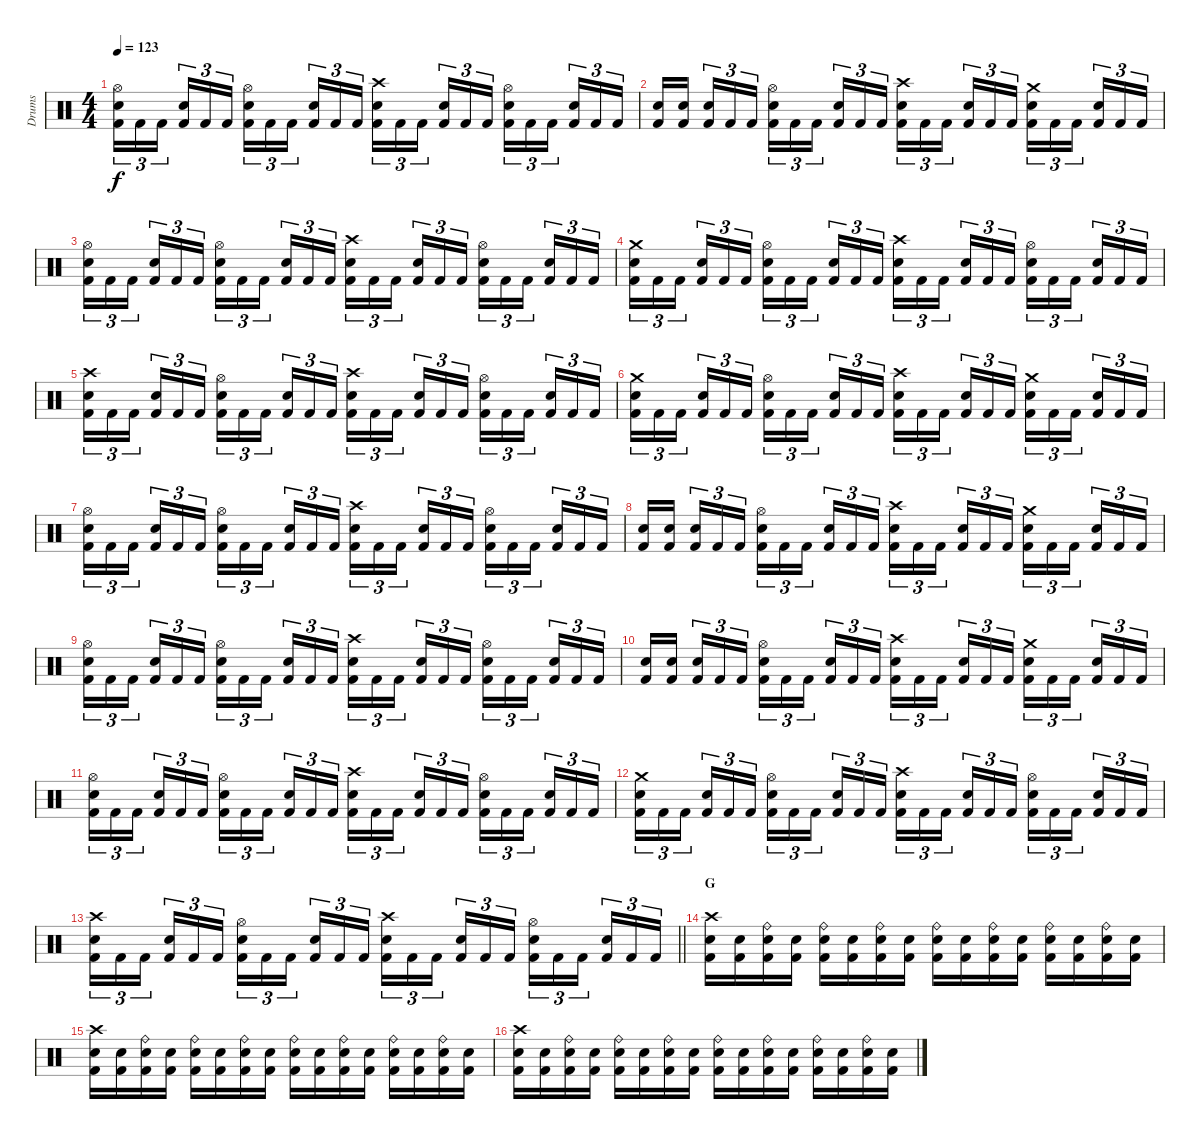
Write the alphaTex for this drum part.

\track ("Drums" "Drums") {instrument percussion}
\staff {score}
\articulation defaults
\ts (4 4)
\tempo 123
\clef neutral
\ks c
("Hi-Hat (open)" "Snare (hit) 2" "Kick (hit) 2").16{tu (3 2) dy f} "Kick (hit) 2".16{tu (3 2)} "Kick (hit) 2".16{tu (3 2) beam splitsecondary} ("Snare (hit) 2" "Kick (hit) 2").16{tu (3 2)} "Kick (hit) 2".16{tu (3 2)} "Kick (hit) 2".16{tu (3 2)} ("Hi-Hat (open)" "Snare (hit) 2" "Kick (hit) 2").16{tu (3 2)} "Kick (hit) 2".16{tu (3 2)} "Kick (hit) 2".16{tu (3 2) beam splitsecondary} ("Snare (hit) 2" "Kick (hit) 2").16{tu (3 2)} "Kick (hit) 2".16{tu (3 2)} "Kick (hit) 2".16{tu (3 2)} ("Crash high (hit)" "Snare (hit) 2" "Kick (hit) 2").16{tu (3 2)} "Kick (hit) 2".16{tu (3 2)} "Kick (hit) 2".16{tu (3 2) beam splitsecondary} ("Snare (hit) 2" "Kick (hit) 2").16{tu (3 2)} "Kick (hit) 2".16{tu (3 2)} "Kick (hit) 2".16{tu (3 2)} ("Hi-Hat (open)" "Snare (hit) 2" "Kick (hit) 2").16{tu (3 2)} "Kick (hit) 2".16{tu (3 2)} "Kick (hit) 2".16{tu (3 2) beam splitsecondary} ("Snare (hit) 2" "Kick (hit) 2").16{tu (3 2)} "Kick (hit) 2".16{tu (3 2)} "Kick (hit) 2".16{tu (3 2)} |
("Snare (hit) 2" "Kick (hit) 2").16 ("Snare (hit) 2" "Kick (hit) 2").16{beam splitsecondary} ("Snare (hit) 2" "Kick (hit) 2").16{tu (3 2)} "Kick (hit) 2".16{tu (3 2)} "Kick (hit) 2".16{tu (3 2)} ("Hi-Hat (open)" "Snare (hit) 2" "Kick (hit) 2").16{tu (3 2)} "Kick (hit) 2".16{tu (3 2)} "Kick (hit) 2".16{tu (3 2) beam splitsecondary} ("Snare (hit) 2" "Kick (hit) 2").16{tu (3 2)} "Kick (hit) 2".16{tu (3 2)} "Kick (hit) 2".16{tu (3 2)} ("Crash high (hit)" "Snare (hit) 2" "Kick (hit) 2").16{tu (3 2)} "Kick (hit) 2".16{tu (3 2)} "Kick (hit) 2".16{tu (3 2) beam splitsecondary} ("Snare (hit) 2" "Kick (hit) 2").16{tu (3 2)} "Kick (hit) 2".16{tu (3 2)} "Kick (hit) 2".16{tu (3 2)} ("Crash medium (hit)" "Snare (hit) 2" "Kick (hit) 2").16{tu (3 2)} "Kick (hit) 2".16{tu (3 2)} "Kick (hit) 2".16{tu (3 2) beam splitsecondary} ("Snare (hit) 2" "Kick (hit) 2").16{tu (3 2)} "Kick (hit) 2".16{tu (3 2)} "Kick (hit) 2".16{tu (3 2)} |
("Hi-Hat (open)" "Snare (hit) 2" "Kick (hit) 2").16{tu (3 2)} "Kick (hit) 2".16{tu (3 2)} "Kick (hit) 2".16{tu (3 2) beam splitsecondary} ("Snare (hit) 2" "Kick (hit) 2").16{tu (3 2)} "Kick (hit) 2".16{tu (3 2)} "Kick (hit) 2".16{tu (3 2)} ("Hi-Hat (open)" "Snare (hit) 2" "Kick (hit) 2").16{tu (3 2)} "Kick (hit) 2".16{tu (3 2)} "Kick (hit) 2".16{tu (3 2) beam splitsecondary} ("Snare (hit) 2" "Kick (hit) 2").16{tu (3 2)} "Kick (hit) 2".16{tu (3 2)} "Kick (hit) 2".16{tu (3 2)} ("Crash high (hit)" "Snare (hit) 2" "Kick (hit) 2").16{tu (3 2)} "Kick (hit) 2".16{tu (3 2)} "Kick (hit) 2".16{tu (3 2) beam splitsecondary} ("Snare (hit) 2" "Kick (hit) 2").16{tu (3 2)} "Kick (hit) 2".16{tu (3 2)} "Kick (hit) 2".16{tu (3 2)} ("Hi-Hat (open)" "Snare (hit) 2" "Kick (hit) 2").16{tu (3 2)} "Kick (hit) 2".16{tu (3 2)} "Kick (hit) 2".16{tu (3 2) beam splitsecondary} ("Snare (hit) 2" "Kick (hit) 2").16{tu (3 2)} "Kick (hit) 2".16{tu (3 2)} "Kick (hit) 2".16{tu (3 2)} |
("Crash medium (hit)" "Snare (hit) 2" "Kick (hit) 2").16{tu (3 2)} "Kick (hit) 2".16{tu (3 2)} "Kick (hit) 2".16{tu (3 2) beam splitsecondary} ("Snare (hit) 2" "Kick (hit) 2").16{tu (3 2)} "Kick (hit) 2".16{tu (3 2)} "Kick (hit) 2".16{tu (3 2)} ("Hi-Hat (open)" "Snare (hit) 2" "Kick (hit) 2").16{tu (3 2)} "Kick (hit) 2".16{tu (3 2)} "Kick (hit) 2".16{tu (3 2) beam splitsecondary} ("Snare (hit) 2" "Kick (hit) 2").16{tu (3 2)} "Kick (hit) 2".16{tu (3 2)} "Kick (hit) 2".16{tu (3 2)} ("Crash high (hit)" "Snare (hit) 2" "Kick (hit) 2").16{tu (3 2)} "Kick (hit) 2".16{tu (3 2)} "Kick (hit) 2".16{tu (3 2) beam splitsecondary} ("Snare (hit) 2" "Kick (hit) 2").16{tu (3 2)} "Kick (hit) 2".16{tu (3 2)} "Kick (hit) 2".16{tu (3 2)} ("Hi-Hat (open)" "Snare (hit) 2" "Kick (hit) 2").16{tu (3 2)} "Kick (hit) 2".16{tu (3 2)} "Kick (hit) 2".16{tu (3 2) beam splitsecondary} ("Snare (hit) 2" "Kick (hit) 2").16{tu (3 2)} "Kick (hit) 2".16{tu (3 2)} "Kick (hit) 2".16{tu (3 2)} |
("Crash high (hit)" "Snare (hit) 2" "Kick (hit) 2").16{tu (3 2)} "Kick (hit) 2".16{tu (3 2)} "Kick (hit) 2".16{tu (3 2) beam splitsecondary} ("Snare (hit) 2" "Kick (hit) 2").16{tu (3 2)} "Kick (hit) 2".16{tu (3 2)} "Kick (hit) 2".16{tu (3 2)} ("Hi-Hat (open)" "Snare (hit) 2" "Kick (hit) 2").16{tu (3 2)} "Kick (hit) 2".16{tu (3 2)} "Kick (hit) 2".16{tu (3 2) beam splitsecondary} ("Snare (hit) 2" "Kick (hit) 2").16{tu (3 2)} "Kick (hit) 2".16{tu (3 2)} "Kick (hit) 2".16{tu (3 2)} ("Crash high (hit)" "Snare (hit) 2" "Kick (hit) 2").16{tu (3 2)} "Kick (hit) 2".16{tu (3 2)} "Kick (hit) 2".16{tu (3 2) beam splitsecondary} ("Snare (hit) 2" "Kick (hit) 2").16{tu (3 2)} "Kick (hit) 2".16{tu (3 2)} "Kick (hit) 2".16{tu (3 2)} ("Hi-Hat (open)" "Snare (hit) 2" "Kick (hit) 2").16{tu (3 2)} "Kick (hit) 2".16{tu (3 2)} "Kick (hit) 2".16{tu (3 2) beam splitsecondary} ("Snare (hit) 2" "Kick (hit) 2").16{tu (3 2)} "Kick (hit) 2".16{tu (3 2)} "Kick (hit) 2".16{tu (3 2)} |
("Crash medium (hit)" "Snare (hit) 2" "Kick (hit) 2").16{tu (3 2)} "Kick (hit) 2".16{tu (3 2)} "Kick (hit) 2".16{tu (3 2) beam splitsecondary} ("Snare (hit) 2" "Kick (hit) 2").16{tu (3 2)} "Kick (hit) 2".16{tu (3 2)} "Kick (hit) 2".16{tu (3 2)} ("Hi-Hat (open)" "Snare (hit) 2" "Kick (hit) 2").16{tu (3 2)} "Kick (hit) 2".16{tu (3 2)} "Kick (hit) 2".16{tu (3 2) beam splitsecondary} ("Snare (hit) 2" "Kick (hit) 2").16{tu (3 2)} "Kick (hit) 2".16{tu (3 2)} "Kick (hit) 2".16{tu (3 2)} ("Crash high (hit)" "Snare (hit) 2" "Kick (hit) 2").16{tu (3 2)} "Kick (hit) 2".16{tu (3 2)} "Kick (hit) 2".16{tu (3 2) beam splitsecondary} ("Snare (hit) 2" "Kick (hit) 2").16{tu (3 2)} "Kick (hit) 2".16{tu (3 2)} "Kick (hit) 2".16{tu (3 2)} ("Crash medium (hit)" "Snare (hit) 2" "Kick (hit) 2").16{tu (3 2)} "Kick (hit) 2".16{tu (3 2)} "Kick (hit) 2".16{tu (3 2) beam splitsecondary} ("Snare (hit) 2" "Kick (hit) 2").16{tu (3 2)} "Kick (hit) 2".16{tu (3 2)} "Kick (hit) 2".16{tu (3 2)} |
("Hi-Hat (open)" "Snare (hit) 2" "Kick (hit) 2").16{tu (3 2)} "Kick (hit) 2".16{tu (3 2)} "Kick (hit) 2".16{tu (3 2) beam splitsecondary} ("Snare (hit) 2" "Kick (hit) 2").16{tu (3 2)} "Kick (hit) 2".16{tu (3 2)} "Kick (hit) 2".16{tu (3 2)} ("Hi-Hat (open)" "Snare (hit) 2" "Kick (hit) 2").16{tu (3 2)} "Kick (hit) 2".16{tu (3 2)} "Kick (hit) 2".16{tu (3 2) beam splitsecondary} ("Snare (hit) 2" "Kick (hit) 2").16{tu (3 2)} "Kick (hit) 2".16{tu (3 2)} "Kick (hit) 2".16{tu (3 2)} ("Crash high (hit)" "Snare (hit) 2" "Kick (hit) 2").16{tu (3 2)} "Kick (hit) 2".16{tu (3 2)} "Kick (hit) 2".16{tu (3 2) beam splitsecondary} ("Snare (hit) 2" "Kick (hit) 2").16{tu (3 2)} "Kick (hit) 2".16{tu (3 2)} "Kick (hit) 2".16{tu (3 2)} ("Hi-Hat (open)" "Snare (hit) 2" "Kick (hit) 2").16{tu (3 2)} "Kick (hit) 2".16{tu (3 2)} "Kick (hit) 2".16{tu (3 2) beam splitsecondary} ("Snare (hit) 2" "Kick (hit) 2").16{tu (3 2)} "Kick (hit) 2".16{tu (3 2)} "Kick (hit) 2".16{tu (3 2)} |
("Snare (hit) 2" "Kick (hit) 2").16 ("Snare (hit) 2" "Kick (hit) 2").16{beam splitsecondary} ("Snare (hit) 2" "Kick (hit) 2").16{tu (3 2)} "Kick (hit) 2".16{tu (3 2)} "Kick (hit) 2".16{tu (3 2)} ("Hi-Hat (open)" "Snare (hit) 2" "Kick (hit) 2").16{tu (3 2)} "Kick (hit) 2".16{tu (3 2)} "Kick (hit) 2".16{tu (3 2) beam splitsecondary} ("Snare (hit) 2" "Kick (hit) 2").16{tu (3 2)} "Kick (hit) 2".16{tu (3 2)} "Kick (hit) 2".16{tu (3 2)} ("Crash high (hit)" "Snare (hit) 2" "Kick (hit) 2").16{tu (3 2)} "Kick (hit) 2".16{tu (3 2)} "Kick (hit) 2".16{tu (3 2) beam splitsecondary} ("Snare (hit) 2" "Kick (hit) 2").16{tu (3 2)} "Kick (hit) 2".16{tu (3 2)} "Kick (hit) 2".16{tu (3 2)} ("Crash medium (hit)" "Snare (hit) 2" "Kick (hit) 2").16{tu (3 2)} "Kick (hit) 2".16{tu (3 2)} "Kick (hit) 2".16{tu (3 2) beam splitsecondary} ("Snare (hit) 2" "Kick (hit) 2").16{tu (3 2)} "Kick (hit) 2".16{tu (3 2)} "Kick (hit) 2".16{tu (3 2)} |
("Hi-Hat (open)" "Snare (hit) 2" "Kick (hit) 2").16{tu (3 2)} "Kick (hit) 2".16{tu (3 2)} "Kick (hit) 2".16{tu (3 2) beam splitsecondary} ("Snare (hit) 2" "Kick (hit) 2").16{tu (3 2)} "Kick (hit) 2".16{tu (3 2)} "Kick (hit) 2".16{tu (3 2)} ("Hi-Hat (open)" "Snare (hit) 2" "Kick (hit) 2").16{tu (3 2)} "Kick (hit) 2".16{tu (3 2)} "Kick (hit) 2".16{tu (3 2) beam splitsecondary} ("Snare (hit) 2" "Kick (hit) 2").16{tu (3 2)} "Kick (hit) 2".16{tu (3 2)} "Kick (hit) 2".16{tu (3 2)} ("Crash high (hit)" "Snare (hit) 2" "Kick (hit) 2").16{tu (3 2)} "Kick (hit) 2".16{tu (3 2)} "Kick (hit) 2".16{tu (3 2) beam splitsecondary} ("Snare (hit) 2" "Kick (hit) 2").16{tu (3 2)} "Kick (hit) 2".16{tu (3 2)} "Kick (hit) 2".16{tu (3 2)} ("Hi-Hat (open)" "Snare (hit) 2" "Kick (hit) 2").16{tu (3 2)} "Kick (hit) 2".16{tu (3 2)} "Kick (hit) 2".16{tu (3 2) beam splitsecondary} ("Snare (hit) 2" "Kick (hit) 2").16{tu (3 2)} "Kick (hit) 2".16{tu (3 2)} "Kick (hit) 2".16{tu (3 2)} |
("Snare (hit) 2" "Kick (hit) 2").16 ("Snare (hit) 2" "Kick (hit) 2").16{beam splitsecondary} ("Snare (hit) 2" "Kick (hit) 2").16{tu (3 2)} "Kick (hit) 2".16{tu (3 2)} "Kick (hit) 2".16{tu (3 2)} ("Hi-Hat (open)" "Snare (hit) 2" "Kick (hit) 2").16{tu (3 2)} "Kick (hit) 2".16{tu (3 2)} "Kick (hit) 2".16{tu (3 2) beam splitsecondary} ("Snare (hit) 2" "Kick (hit) 2").16{tu (3 2)} "Kick (hit) 2".16{tu (3 2)} "Kick (hit) 2".16{tu (3 2)} ("Crash high (hit)" "Snare (hit) 2" "Kick (hit) 2").16{tu (3 2)} "Kick (hit) 2".16{tu (3 2)} "Kick (hit) 2".16{tu (3 2) beam splitsecondary} ("Snare (hit) 2" "Kick (hit) 2").16{tu (3 2)} "Kick (hit) 2".16{tu (3 2)} "Kick (hit) 2".16{tu (3 2)} ("Crash medium (hit)" "Snare (hit) 2" "Kick (hit) 2").16{tu (3 2)} "Kick (hit) 2".16{tu (3 2)} "Kick (hit) 2".16{tu (3 2) beam splitsecondary} ("Snare (hit) 2" "Kick (hit) 2").16{tu (3 2)} "Kick (hit) 2".16{tu (3 2)} "Kick (hit) 2".16{tu (3 2)} |
("Hi-Hat (open)" "Snare (hit) 2" "Kick (hit) 2").16{tu (3 2)} "Kick (hit) 2".16{tu (3 2)} "Kick (hit) 2".16{tu (3 2) beam splitsecondary} ("Snare (hit) 2" "Kick (hit) 2").16{tu (3 2)} "Kick (hit) 2".16{tu (3 2)} "Kick (hit) 2".16{tu (3 2)} ("Hi-Hat (open)" "Snare (hit) 2" "Kick (hit) 2").16{tu (3 2)} "Kick (hit) 2".16{tu (3 2)} "Kick (hit) 2".16{tu (3 2) beam splitsecondary} ("Snare (hit) 2" "Kick (hit) 2").16{tu (3 2)} "Kick (hit) 2".16{tu (3 2)} "Kick (hit) 2".16{tu (3 2)} ("Crash high (hit)" "Snare (hit) 2" "Kick (hit) 2").16{tu (3 2)} "Kick (hit) 2".16{tu (3 2)} "Kick (hit) 2".16{tu (3 2) beam splitsecondary} ("Snare (hit) 2" "Kick (hit) 2").16{tu (3 2)} "Kick (hit) 2".16{tu (3 2)} "Kick (hit) 2".16{tu (3 2)} ("Hi-Hat (open)" "Snare (hit) 2" "Kick (hit) 2").16{tu (3 2)} "Kick (hit) 2".16{tu (3 2)} "Kick (hit) 2".16{tu (3 2) beam splitsecondary} ("Snare (hit) 2" "Kick (hit) 2").16{tu (3 2)} "Kick (hit) 2".16{tu (3 2)} "Kick (hit) 2".16{tu (3 2)} |
("Crash medium (hit)" "Snare (hit) 2" "Kick (hit) 2").16{tu (3 2)} "Kick (hit) 2".16{tu (3 2)} "Kick (hit) 2".16{tu (3 2) beam splitsecondary} ("Snare (hit) 2" "Kick (hit) 2").16{tu (3 2)} "Kick (hit) 2".16{tu (3 2)} "Kick (hit) 2".16{tu (3 2)} ("Hi-Hat (open)" "Snare (hit) 2" "Kick (hit) 2").16{tu (3 2)} "Kick (hit) 2".16{tu (3 2)} "Kick (hit) 2".16{tu (3 2) beam splitsecondary} ("Snare (hit) 2" "Kick (hit) 2").16{tu (3 2)} "Kick (hit) 2".16{tu (3 2)} "Kick (hit) 2".16{tu (3 2)} ("Crash high (hit)" "Snare (hit) 2" "Kick (hit) 2").16{tu (3 2)} "Kick (hit) 2".16{tu (3 2)} "Kick (hit) 2".16{tu (3 2) beam splitsecondary} ("Snare (hit) 2" "Kick (hit) 2").16{tu (3 2)} "Kick (hit) 2".16{tu (3 2)} "Kick (hit) 2".16{tu (3 2)} ("Hi-Hat (open)" "Snare (hit) 2" "Kick (hit) 2").16{tu (3 2)} "Kick (hit) 2".16{tu (3 2)} "Kick (hit) 2".16{tu (3 2) beam splitsecondary} ("Snare (hit) 2" "Kick (hit) 2").16{tu (3 2)} "Kick (hit) 2".16{tu (3 2)} "Kick (hit) 2".16{tu (3 2)} |
\barLineRight lightlight
("Crash high (hit)" "Snare (hit) 2" "Kick (hit) 2").16{tu (3 2)} "Kick (hit) 2".16{tu (3 2)} "Kick (hit) 2".16{tu (3 2) beam splitsecondary} ("Snare (hit) 2" "Kick (hit) 2").16{tu (3 2)} "Kick (hit) 2".16{tu (3 2)} "Kick (hit) 2".16{tu (3 2)} ("Hi-Hat (open)" "Snare (hit) 2" "Kick (hit) 2").16{tu (3 2)} "Kick (hit) 2".16{tu (3 2)} "Kick (hit) 2".16{tu (3 2) beam splitsecondary} ("Snare (hit) 2" "Kick (hit) 2").16{tu (3 2)} "Kick (hit) 2".16{tu (3 2)} "Kick (hit) 2".16{tu (3 2)} ("Crash high (hit)" "Snare (hit) 2" "Kick (hit) 2").16{tu (3 2)} "Kick (hit) 2".16{tu (3 2)} "Kick (hit) 2".16{tu (3 2) beam splitsecondary} ("Snare (hit) 2" "Kick (hit) 2").16{tu (3 2)} "Kick (hit) 2".16{tu (3 2)} "Kick (hit) 2".16{tu (3 2)} ("Hi-Hat (open)" "Snare (hit) 2" "Kick (hit) 2").16{tu (3 2)} "Kick (hit) 2".16{tu (3 2)} "Kick (hit) 2".16{tu (3 2) beam splitsecondary} ("Snare (hit) 2" "Kick (hit) 2").16{tu (3 2)} "Kick (hit) 2".16{tu (3 2)} "Kick (hit) 2".16{tu (3 2)} |
\section ("" "G")
("Crash high (hit)" "Snare (hit) 2" "Kick (hit) 2").16 ("Snare (hit) 2" "Kick (hit) 2").16 ("Ride (bell)" "Snare (hit) 2" "Kick (hit) 2").16 ("Snare (hit) 2" "Kick (hit) 2").16 ("Ride (bell)" "Snare (hit) 2" "Kick (hit) 2").16 ("Snare (hit) 2" "Kick (hit) 2").16 ("Ride (bell)" "Snare (hit) 2" "Kick (hit) 2").16 ("Snare (hit) 2" "Kick (hit) 2").16 ("Ride (bell)" "Snare (hit) 2" "Kick (hit) 2").16 ("Snare (hit) 2" "Kick (hit) 2").16 ("Ride (bell)" "Snare (hit) 2" "Kick (hit) 2").16 ("Snare (hit) 2" "Kick (hit) 2").16 ("Ride (bell)" "Snare (hit) 2" "Kick (hit) 2").16 ("Snare (hit) 2" "Kick (hit) 2").16 ("Ride (bell)" "Snare (hit) 2" "Kick (hit) 2").16 ("Snare (hit) 2" "Kick (hit) 2").16 |
("Crash high (hit)" "Snare (hit) 2" "Kick (hit) 2").16 ("Snare (hit) 2" "Kick (hit) 2").16 ("Ride (bell)" "Snare (hit) 2" "Kick (hit) 2").16 ("Snare (hit) 2" "Kick (hit) 2").16 ("Ride (bell)" "Snare (hit) 2" "Kick (hit) 2").16 ("Snare (hit) 2" "Kick (hit) 2").16 ("Ride (bell)" "Snare (hit) 2" "Kick (hit) 2").16 ("Snare (hit) 2" "Kick (hit) 2").16 ("Ride (bell)" "Snare (hit) 2" "Kick (hit) 2").16 ("Snare (hit) 2" "Kick (hit) 2").16 ("Ride (bell)" "Snare (hit) 2" "Kick (hit) 2").16 ("Snare (hit) 2" "Kick (hit) 2").16 ("Ride (bell)" "Snare (hit) 2" "Kick (hit) 2").16 ("Snare (hit) 2" "Kick (hit) 2").16 ("Ride (bell)" "Snare (hit) 2" "Kick (hit) 2").16 ("Snare (hit) 2" "Kick (hit) 2").16 |
("Crash high (hit)" "Snare (hit) 2" "Kick (hit) 2").16 ("Snare (hit) 2" "Kick (hit) 2").16 ("Ride (bell)" "Snare (hit) 2" "Kick (hit) 2").16 ("Snare (hit) 2" "Kick (hit) 2").16 ("Ride (bell)" "Snare (hit) 2" "Kick (hit) 2").16 ("Snare (hit) 2" "Kick (hit) 2").16 ("Ride (bell)" "Snare (hit) 2" "Kick (hit) 2").16 ("Snare (hit) 2" "Kick (hit) 2").16 ("Ride (bell)" "Snare (hit) 2" "Kick (hit) 2").16 ("Snare (hit) 2" "Kick (hit) 2").16 ("Ride (bell)" "Snare (hit) 2" "Kick (hit) 2").16 ("Snare (hit) 2" "Kick (hit) 2").16 ("Ride (bell)" "Snare (hit) 2" "Kick (hit) 2").16 ("Snare (hit) 2" "Kick (hit) 2").16 ("Ride (bell)" "Snare (hit) 2" "Kick (hit) 2").16 ("Snare (hit) 2" "Kick (hit) 2").16
